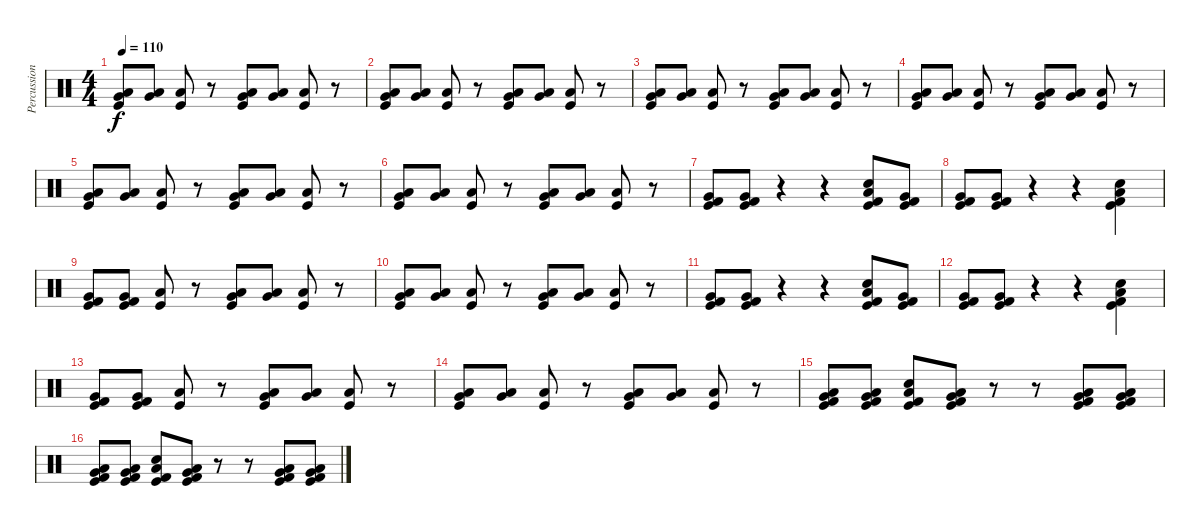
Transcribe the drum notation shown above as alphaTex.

\track ("Percussion" "Percussion") {instrument percussion}
\staff {score}
\articulation defaults
\ts (4 4)
\tempo 110
\clef neutral
\ks c
("Low Tom (hit)" "Very Low Tom (hit)" "Kick (hit)").8{dy f} ("Low Tom (hit)" "Very Low Tom (hit)").8 ("Low Floor Tom (hit)" "Kick (hit)").8 r.8 ("Low Tom (hit)" "Very Low Tom (hit)" "Kick (hit)").8 ("Low Tom (hit)" "Very Low Tom (hit)").8 ("Low Floor Tom (hit)" "Kick (hit)").8 r.8 |
("Low Tom (hit)" "Very Low Tom (hit)" "Kick (hit)").8 ("Low Tom (hit)" "Very Low Tom (hit)").8 ("Low Floor Tom (hit)" "Kick (hit)").8 r.8 ("Low Tom (hit)" "Very Low Tom (hit)" "Kick (hit)").8 ("Low Tom (hit)" "Very Low Tom (hit)").8 ("Low Floor Tom (hit)" "Kick (hit)").8 r.8 |
("Low Tom (hit)" "Very Low Tom (hit)" "Kick (hit)").8 ("Low Tom (hit)" "Very Low Tom (hit)").8 ("Low Floor Tom (hit)" "Kick (hit)").8 r.8 ("Low Tom (hit)" "Very Low Tom (hit)" "Kick (hit)").8 ("Low Tom (hit)" "Very Low Tom (hit)").8 ("Low Floor Tom (hit)" "Kick (hit)").8 r.8 |
("Low Tom (hit)" "Very Low Tom (hit)" "Kick (hit)").8 ("Low Tom (hit)" "Very Low Tom (hit)").8 ("Low Floor Tom (hit)" "Kick (hit)").8 r.8 ("Low Tom (hit)" "Very Low Tom (hit)" "Kick (hit)").8 ("Low Tom (hit)" "Very Low Tom (hit)").8 ("Low Floor Tom (hit)" "Kick (hit)").8 r.8 |
("Low Tom (hit)" "Very Low Tom (hit)" "Kick (hit)").8 ("Low Tom (hit)" "Very Low Tom (hit)").8 ("Low Floor Tom (hit)" "Kick (hit)").8 r.8 ("Low Tom (hit)" "Very Low Tom (hit)" "Kick (hit)").8 ("Low Tom (hit)" "Very Low Tom (hit)").8 ("Low Floor Tom (hit)" "Kick (hit)").8 r.8 |
("Low Tom (hit)" "Very Low Tom (hit)" "Kick (hit)").8 ("Low Tom (hit)" "Very Low Tom (hit)").8 ("Low Floor Tom (hit)" "Kick (hit)").8 r.8 ("Low Tom (hit)" "Very Low Tom (hit)" "Kick (hit)").8 ("Low Tom (hit)" "Very Low Tom (hit)").8 ("Low Floor Tom (hit)" "Kick (hit)").8 r.8 |
("Very Low Tom (hit)" "Kick (hit) 2" "Kick (hit)").8 ("Very Low Tom (hit)" "Kick (hit) 2" "Kick (hit)").8 r.4 r.4 ("Electric Snare (hit)" "Low Tom (hit)" "Kick (hit) 2" "Kick (hit)").8 ("Very Low Tom (hit)" "Kick (hit) 2" "Kick (hit)").8 |
("Very Low Tom (hit)" "Kick (hit) 2" "Kick (hit)").8 ("Very Low Tom (hit)" "Kick (hit) 2" "Kick (hit)").8 r.4 r.4 ("Electric Snare (hit)" "Low Tom (hit)" "Kick (hit) 2" "Kick (hit)").4 |
("Very Low Tom (hit)" "Kick (hit) 2" "Kick (hit)").8 ("Very Low Tom (hit)" "Kick (hit) 2" "Kick (hit)").8 ("Low Floor Tom (hit)" "Kick (hit)").8 r.8 ("Low Tom (hit)" "Very Low Tom (hit)" "Kick (hit)").8 ("Low Tom (hit)" "Very Low Tom (hit)").8 ("Low Floor Tom (hit)" "Kick (hit)").8 r.8 |
("Low Tom (hit)" "Very Low Tom (hit)" "Kick (hit)").8 ("Low Tom (hit)" "Very Low Tom (hit)").8 ("Low Floor Tom (hit)" "Kick (hit)").8 r.8 ("Low Tom (hit)" "Very Low Tom (hit)" "Kick (hit)").8 ("Low Tom (hit)" "Very Low Tom (hit)").8 ("Low Floor Tom (hit)" "Kick (hit)").8 r.8 |
("Very Low Tom (hit)" "Kick (hit) 2" "Kick (hit)").8 ("Very Low Tom (hit)" "Kick (hit) 2" "Kick (hit)").8 r.4 r.4 ("Electric Snare (hit)" "Low Tom (hit)" "Kick (hit) 2" "Kick (hit)").8 ("Very Low Tom (hit)" "Kick (hit) 2" "Kick (hit)").8 |
("Very Low Tom (hit)" "Kick (hit) 2" "Kick (hit)").8 ("Very Low Tom (hit)" "Kick (hit) 2" "Kick (hit)").8 r.4 r.4 ("Electric Snare (hit)" "Low Tom (hit)" "Kick (hit) 2" "Kick (hit)").4 |
("Very Low Tom (hit)" "Kick (hit) 2" "Kick (hit)").8 ("Very Low Tom (hit)" "Kick (hit) 2" "Kick (hit)").8 ("Low Floor Tom (hit)" "Kick (hit)").8 r.8 ("Low Tom (hit)" "Very Low Tom (hit)" "Kick (hit)").8 ("Low Tom (hit)" "Very Low Tom (hit)").8 ("Low Floor Tom (hit)" "Kick (hit)").8 r.8 |
("Low Tom (hit)" "Very Low Tom (hit)" "Kick (hit)").8 ("Low Tom (hit)" "Very Low Tom (hit)").8 ("Low Floor Tom (hit)" "Kick (hit)").8 r.8 ("Low Tom (hit)" "Very Low Tom (hit)" "Kick (hit)").8 ("Low Tom (hit)" "Very Low Tom (hit)").8 ("Low Floor Tom (hit)" "Kick (hit)").8 r.8 |
("Low Tom (hit)" "Very Low Tom (hit)" "Kick (hit) 2" "Kick (hit)").8 ("Low Tom (hit)" "Very Low Tom (hit)" "Kick (hit) 2" "Kick (hit)").8 ("Snare (hit) 2" "Low Tom (hit)" "Kick (hit) 2" "Kick (hit)").8 ("Low Tom (hit)" "Very Low Tom (hit)" "Kick (hit) 2" "Kick (hit)").8 r.8 r.8 ("Low Tom (hit)" "Very Low Tom (hit)" "Kick (hit) 2" "Kick (hit)").8 ("Low Tom (hit)" "Very Low Tom (hit)" "Kick (hit) 2" "Kick (hit)").8 |
("Low Tom (hit)" "Very Low Tom (hit)" "Kick (hit) 2" "Kick (hit)").8 ("Low Tom (hit)" "Very Low Tom (hit)" "Kick (hit) 2" "Kick (hit)").8 ("Snare (hit) 2" "Low Tom (hit)" "Kick (hit) 2" "Kick (hit)").8 ("Low Tom (hit)" "Very Low Tom (hit)" "Kick (hit) 2" "Kick (hit)").8 r.8 r.8 ("Low Tom (hit)" "Very Low Tom (hit)" "Kick (hit) 2" "Kick (hit)").8 ("Low Tom (hit)" "Very Low Tom (hit)" "Kick (hit) 2" "Kick (hit)").8
